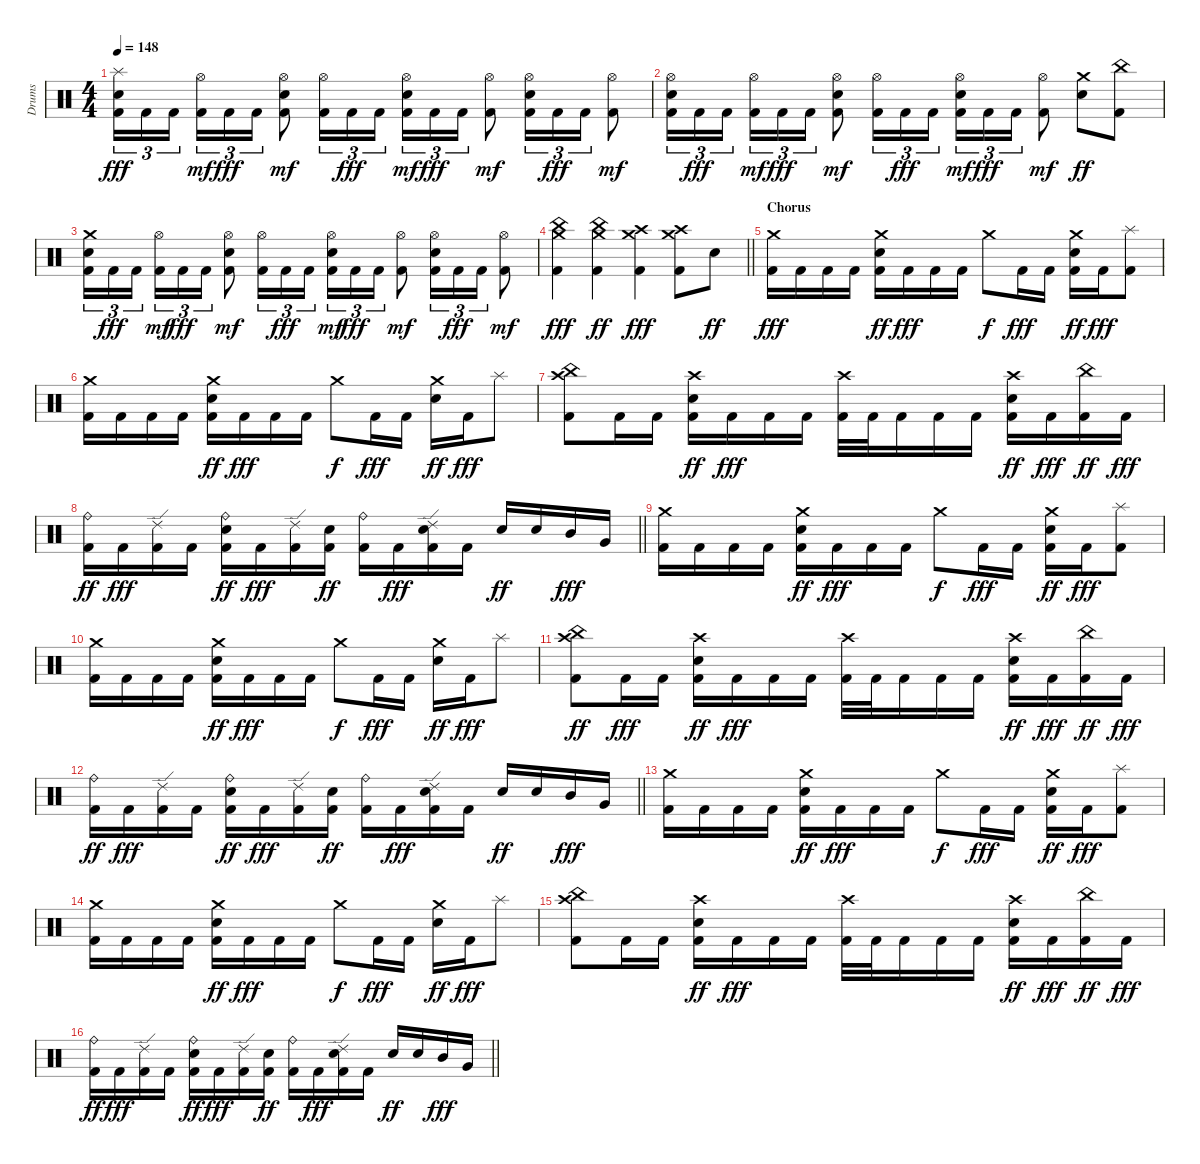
\track ("Drums" "Drums") {instrument percussion}
\staff {score}
\articulation defaults
\ts (4 4)
\tempo 148
\clef neutral
\ks c
("Kick (hit) 2" "Snare (hit) 2" "Splash (hit)").16{tu (3 2) dy fff} "Kick (hit) 2".16{tu (3 2)} "Kick (hit) 2".16{tu (3 2) beam splitsecondary} ("Kick (hit) 2" "Hi-Hat (open)").16{tu (3 2) dy mf} "Kick (hit) 2".16{tu (3 2) dy fff} "Kick (hit) 2".16{tu (3 2)} ("Kick (hit) 2" "Snare (hit) 2" "Hi-Hat (open)").8{dy mf} ("Kick (hit) 2" "Hi-Hat (open)").16{tu (3 2)} "Kick (hit) 2".16{tu (3 2) dy fff} "Kick (hit) 2".16{tu (3 2)} ("Kick (hit) 2" "Snare (hit) 2" "Hi-Hat (open)").16{tu (3 2) dy mf} "Kick (hit) 2".16{tu (3 2) dy fff} "Kick (hit) 2".16{tu (3 2)} ("Kick (hit) 2" "Hi-Hat (open)").8{dy mf} ("Kick (hit) 2" "Snare (hit) 2" "Hi-Hat (open)").16{tu (3 2)} "Kick (hit) 2".16{tu (3 2) dy fff} "Kick (hit) 2".16{tu (3 2)} ("Kick (hit) 2" "Hi-Hat (open)").8{dy mf} |
("Kick (hit) 2" "Snare (hit) 2" "Hi-Hat (open)").16{tu (3 2)} "Kick (hit) 2".16{tu (3 2) dy fff} "Kick (hit) 2".16{tu (3 2) beam splitsecondary} ("Kick (hit) 2" "Hi-Hat (open)").16{tu (3 2) dy mf} "Kick (hit) 2".16{tu (3 2) dy fff} "Kick (hit) 2".16{tu (3 2)} ("Kick (hit) 2" "Snare (hit) 2" "Hi-Hat (open)").8{dy mf} ("Kick (hit) 2" "Hi-Hat (open)").16{tu (3 2)} "Kick (hit) 2".16{tu (3 2) dy fff} "Kick (hit) 2".16{tu (3 2)} ("Kick (hit) 2" "Snare (hit) 2" "Hi-Hat (open)").16{tu (3 2) dy mf} "Kick (hit) 2".16{tu (3 2) dy fff} "Kick (hit) 2".16{tu (3 2)} ("Kick (hit) 2" "Hi-Hat (open)").8{dy mf} ("Snare (hit) 2" "Crash medium (hit)").8{dy ff} ("Kick (hit) 2" "China (hit)").8 |
("Kick (hit) 2" "Snare (hit) 2" "Crash medium (hit)").16{tu (3 2)} "Kick (hit) 2".16{tu (3 2) dy fff} "Kick (hit) 2".16{tu (3 2) beam splitsecondary} ("Kick (hit) 2" "Hi-Hat (open)").16{tu (3 2) dy mf} "Kick (hit) 2".16{tu (3 2) dy fff} "Kick (hit) 2".16{tu (3 2)} ("Kick (hit) 2" "Snare (hit) 2" "Hi-Hat (open)").8{dy mf} ("Kick (hit) 2" "Hi-Hat (open)").16{tu (3 2)} "Kick (hit) 2".16{tu (3 2) dy fff} "Kick (hit) 2".16{tu (3 2)} ("Kick (hit) 2" "Snare (hit) 2" "Hi-Hat (open)").16{tu (3 2) dy mf} "Kick (hit) 2".16{tu (3 2) dy fff} "Kick (hit) 2".16{tu (3 2)} ("Kick (hit) 2" "Hi-Hat (open)").8{dy mf} ("Kick (hit) 2" "Snare (hit) 2" "Hi-Hat (open)").16{tu (3 2)} "Kick (hit) 2".16{tu (3 2) dy fff} "Kick (hit) 2".16{tu (3 2)} ("Kick (hit) 2" "Hi-Hat (open)").8{dy mf} |
\barLineRight lightlight
("Kick (hit) 2" "Crash medium (hit)" "China (hit)").4{dy fff} ("Kick (hit) 2" "Crash medium (hit)" "China (hit)").4{dy ff} ("Kick (hit) 2" "Crash medium (hit)" "Crash high (hit)").4{dy fff} ("Kick (hit) 2" "Crash medium (hit)" "Crash high (hit)").8 "Snare (hit) 2".8{dy ff} |
\section ("" "Chorus")
("Kick (hit) 2" "Crash medium (hit)").16{dy fff} "Kick (hit) 2".16 "Kick (hit) 2".16 "Kick (hit) 2".16 ("Kick (hit) 2" "Snare (hit) 2" "Crash medium (hit)").16{dy ff} "Kick (hit) 2".16{dy fff} "Kick (hit) 2".16 "Kick (hit) 2".16 "Crash medium (hit)".8{dy f} "Kick (hit) 2".16{dy fff} "Kick (hit) 2".16 ("Kick (hit) 2" "Snare (hit) 2" "Crash medium (hit)").16{dy ff} "Kick (hit) 2".16{dy fff} ("Kick (hit) 2" "Splash (hit)").8 |
("Kick (hit) 2" "Crash medium (hit)").16 "Kick (hit) 2".16 "Kick (hit) 2".16 "Kick (hit) 2".16 ("Kick (hit) 2" "Snare (hit) 2" "Crash medium (hit)").16{dy ff} "Kick (hit) 2".16{dy fff} "Kick (hit) 2".16 "Kick (hit) 2".16 "Crash medium (hit)".8{dy f} "Kick (hit) 2".16{dy fff} "Kick (hit) 2".16 ("Snare (hit) 2" "Crash medium (hit)").16{dy ff} "Kick (hit) 2".16{dy fff} "Splash (hit)".8 |
("Kick (hit) 2" "China (hit)" "Crash high (hit)").8 "Kick (hit) 2".16 "Kick (hit) 2".16 ("Kick (hit) 2" "Snare (hit) 2" "Crash high (hit)").16{dy ff} "Kick (hit) 2".16{dy fff} "Kick (hit) 2".16 "Kick (hit) 2".16 ("Kick (hit) 2" "Crash high (hit)").32 "Kick (hit) 2".32 "Kick (hit) 2".16 "Kick (hit) 2".16 "Kick (hit) 2".16 ("Kick (hit) 2" "Snare (hit) 2" "Crash high (hit)").16{dy ff} "Kick (hit) 2".16{dy fff} ("Kick (hit) 2" "China (hit)").16{dy ff} "Kick (hit) 2".16{dy fff} |
\barLineRight lightlight
("Kick (hit) 2" "Ride (bell)").16{dy ff} "Kick (hit) 2".16{dy fff} ("Kick (hit) 2" "Ride (edge) 2").16 "Kick (hit) 2".16 ("Kick (hit) 2" "Snare (hit) 2" "Ride (bell)").16{dy ff} "Kick (hit) 2".16{dy fff} ("Kick (hit) 2" "Ride (edge) 2").16 ("Kick (hit) 2" "Snare (hit) 2").16{dy ff} ("Kick (hit) 2" "Ride (bell)").16 "Kick (hit) 2".16{dy fff} ("Kick (hit) 2" "Snare (hit) 2" "Ride (edge) 2").16 "Kick (hit) 2".16 "Snare (hit) 2".16{dy ff} "Snare (hit) 2".16 "Mid Tom (hit)".16{dy fff} "Very Low Tom (hit)".16 |
("Kick (hit) 2" "Crash medium (hit)").16 "Kick (hit) 2".16 "Kick (hit) 2".16 "Kick (hit) 2".16 ("Kick (hit) 2" "Snare (hit) 2" "Crash medium (hit)").16{dy ff} "Kick (hit) 2".16{dy fff} "Kick (hit) 2".16 "Kick (hit) 2".16 "Crash medium (hit)".8{dy f} "Kick (hit) 2".16{dy fff} "Kick (hit) 2".16 ("Kick (hit) 2" "Snare (hit) 2" "Crash medium (hit)").16{dy ff} "Kick (hit) 2".16{dy fff} ("Kick (hit) 2" "Splash (hit)").8 |
("Kick (hit) 2" "Crash medium (hit)").16 "Kick (hit) 2".16 "Kick (hit) 2".16 "Kick (hit) 2".16 ("Kick (hit) 2" "Snare (hit) 2" "Crash medium (hit)").16{dy ff} "Kick (hit) 2".16{dy fff} "Kick (hit) 2".16 "Kick (hit) 2".16 "Crash medium (hit)".8{dy f} "Kick (hit) 2".16{dy fff} "Kick (hit) 2".16 ("Snare (hit) 2" "Crash medium (hit)").16{dy ff} "Kick (hit) 2".16{dy fff} "Splash (hit)".8 |
("Kick (hit) 2" "China (hit)" "Crash high (hit)").8{dy ff} "Kick (hit) 2".16{dy fff} "Kick (hit) 2".16 ("Kick (hit) 2" "Snare (hit) 2" "Crash high (hit)").16{dy ff} "Kick (hit) 2".16{dy fff} "Kick (hit) 2".16 "Kick (hit) 2".16 ("Kick (hit) 2" "Crash high (hit)").32 "Kick (hit) 2".32 "Kick (hit) 2".16 "Kick (hit) 2".16 "Kick (hit) 2".16 ("Kick (hit) 2" "Snare (hit) 2" "Crash high (hit)").16{dy ff} "Kick (hit) 2".16{dy fff} ("Kick (hit) 2" "China (hit)").16{dy ff} "Kick (hit) 2".16{dy fff} |
\barLineRight lightlight
("Kick (hit) 2" "Ride (bell)").16{dy ff} "Kick (hit) 2".16{dy fff} ("Kick (hit) 2" "Ride (edge) 2").16 "Kick (hit) 2".16 ("Kick (hit) 2" "Snare (hit) 2" "Ride (bell)").16{dy ff} "Kick (hit) 2".16{dy fff} ("Kick (hit) 2" "Ride (edge) 2").16 ("Kick (hit) 2" "Snare (hit) 2").16{dy ff} ("Kick (hit) 2" "Ride (bell)").16 "Kick (hit) 2".16{dy fff} ("Kick (hit) 2" "Snare (hit) 2" "Ride (edge) 2").16 "Kick (hit) 2".16 "Snare (hit) 2".16{dy ff} "Snare (hit) 2".16 "Mid Tom (hit)".16{dy fff} "Very Low Tom (hit)".16 |
("Kick (hit) 2" "Crash medium (hit)").16 "Kick (hit) 2".16 "Kick (hit) 2".16 "Kick (hit) 2".16 ("Kick (hit) 2" "Snare (hit) 2" "Crash medium (hit)").16{dy ff} "Kick (hit) 2".16{dy fff} "Kick (hit) 2".16 "Kick (hit) 2".16 "Crash medium (hit)".8{dy f} "Kick (hit) 2".16{dy fff} "Kick (hit) 2".16 ("Kick (hit) 2" "Snare (hit) 2" "Crash medium (hit)").16{dy ff} "Kick (hit) 2".16{dy fff} ("Kick (hit) 2" "Splash (hit)").8 |
("Kick (hit) 2" "Crash medium (hit)").16 "Kick (hit) 2".16 "Kick (hit) 2".16 "Kick (hit) 2".16 ("Kick (hit) 2" "Snare (hit) 2" "Crash medium (hit)").16{dy ff} "Kick (hit) 2".16{dy fff} "Kick (hit) 2".16 "Kick (hit) 2".16 "Crash medium (hit)".8{dy f} "Kick (hit) 2".16{dy fff} "Kick (hit) 2".16 ("Snare (hit) 2" "Crash medium (hit)").16{dy ff} "Kick (hit) 2".16{dy fff} "Splash (hit)".8 |
("Kick (hit) 2" "China (hit)" "Crash high (hit)").8 "Kick (hit) 2".16 "Kick (hit) 2".16 ("Kick (hit) 2" "Snare (hit) 2" "Crash high (hit)").16{dy ff} "Kick (hit) 2".16{dy fff} "Kick (hit) 2".16 "Kick (hit) 2".16 ("Kick (hit) 2" "Crash high (hit)").32 "Kick (hit) 2".32 "Kick (hit) 2".16 "Kick (hit) 2".16 "Kick (hit) 2".16 ("Kick (hit) 2" "Snare (hit) 2" "Crash high (hit)").16{dy ff} "Kick (hit) 2".16{dy fff} ("Kick (hit) 2" "China (hit)").16{dy ff} "Kick (hit) 2".16{dy fff} |
\barLineRight lightlight
("Kick (hit) 2" "Ride (bell)").16{dy ff} "Kick (hit) 2".16{dy fff} ("Kick (hit) 2" "Ride (edge) 2").16 "Kick (hit) 2".16 ("Kick (hit) 2" "Snare (hit) 2" "Ride (bell)").16{dy ff} "Kick (hit) 2".16{dy fff} ("Kick (hit) 2" "Ride (edge) 2").16 ("Kick (hit) 2" "Snare (hit) 2").16{dy ff} ("Kick (hit) 2" "Ride (bell)").16 "Kick (hit) 2".16{dy fff} ("Kick (hit) 2" "Snare (hit) 2" "Ride (edge) 2").16 "Kick (hit) 2".16 "Snare (hit) 2".16{dy ff} "Snare (hit) 2".16 "Mid Tom (hit)".16{dy fff} "Very Low Tom (hit)".16
